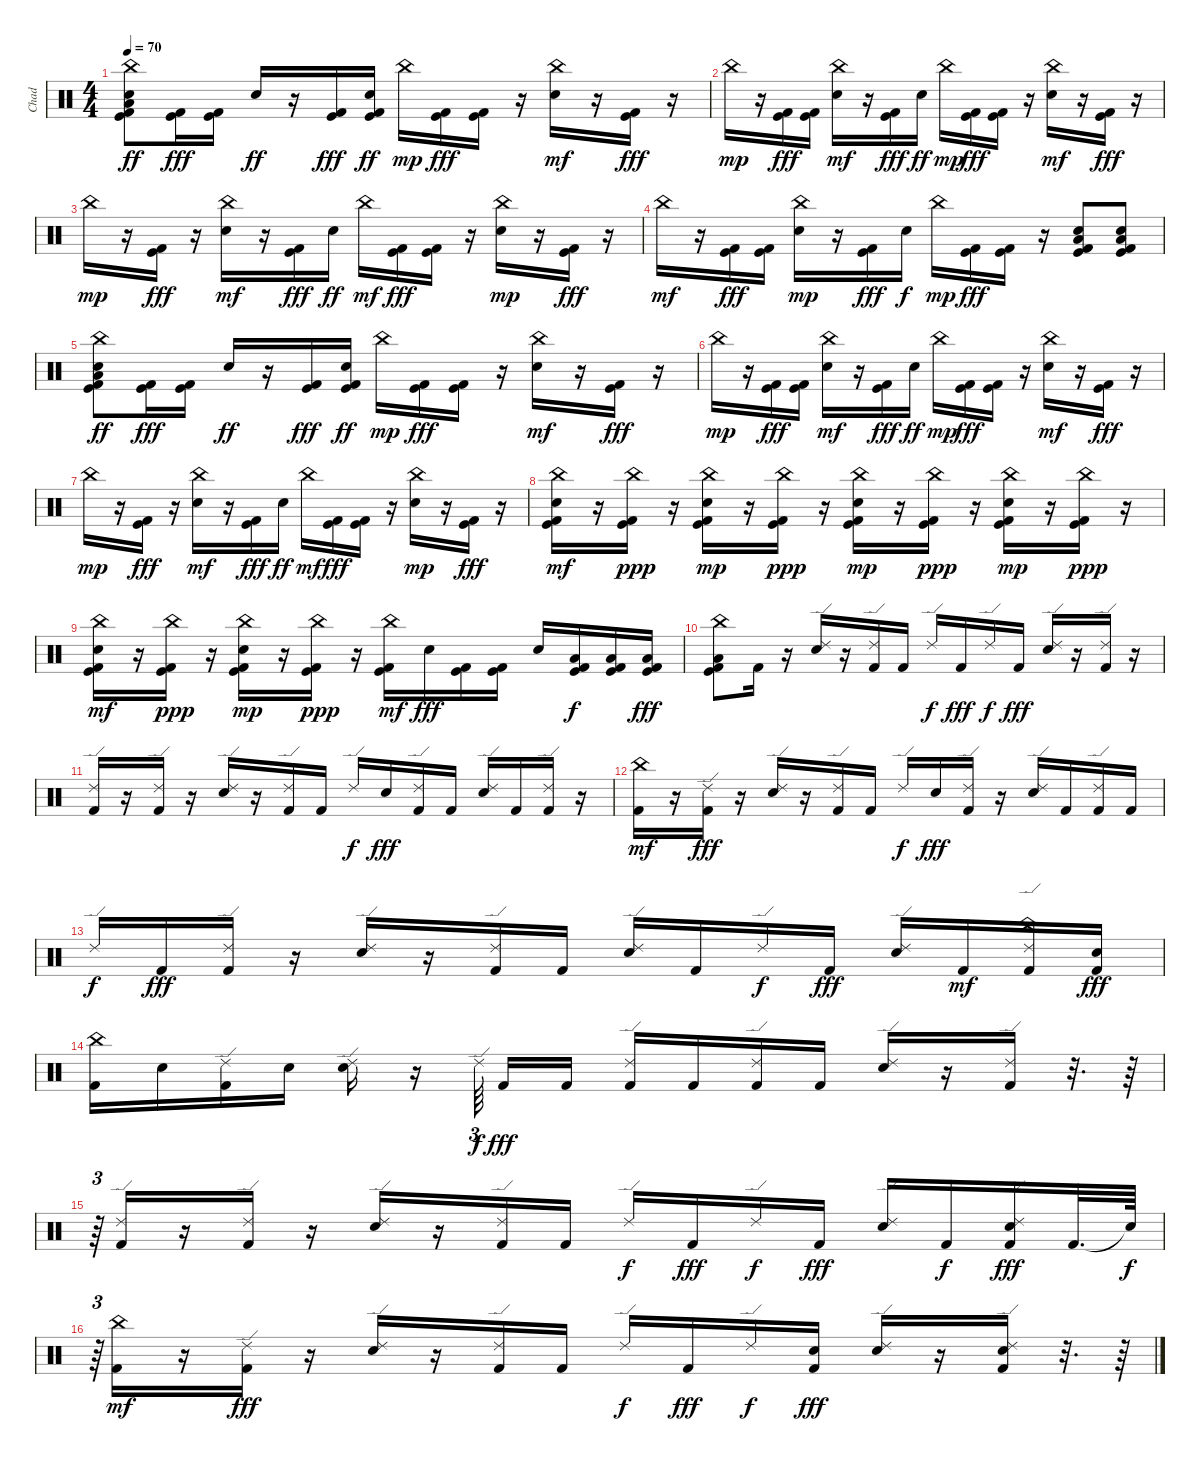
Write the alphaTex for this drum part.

\track ("Chad" "Chad") {instrument percussion}
\staff {score}
\articulation defaults
\ts (4 4)
\tempo 70
\clef neutral
\ks c
("Kick (hit)" "Kick (hit) 2" "Snare (hit) 2" "Low Floor Tom (hit)" "China (hit)").8{dy ff} ("Kick (hit)" "Kick (hit) 2").16{dy fff} ("Kick (hit)" "Kick (hit) 2").16 "Snare (hit) 2".16{dy ff} r.16 ("Kick (hit)" "Kick (hit) 2").16{dy fff} ("Kick (hit)" "Kick (hit) 2" "Snare (hit) 2").16{dy ff} "China (hit)".16{dy mp} ("Kick (hit)" "Kick (hit) 2").16{dy fff} ("Kick (hit)" "Kick (hit) 2").16 r.16 ("Snare (hit) 2" "China (hit)").16{dy mf} r.16 ("Kick (hit)" "Kick (hit) 2").16{dy fff} r.16 |
"China (hit)".16{dy mp} r.16 ("Kick (hit)" "Kick (hit) 2").16{dy fff} ("Kick (hit)" "Kick (hit) 2").16 ("Snare (hit) 2" "China (hit)").16{dy mf} r.16 ("Kick (hit)" "Kick (hit) 2").16{dy fff} "Snare (hit) 2".16{dy ff} "China (hit)".16{dy mp} ("Kick (hit)" "Kick (hit) 2").16{dy fff} ("Kick (hit)" "Kick (hit) 2").16 r.16 ("Snare (hit) 2" "China (hit)").16{dy mf} r.16 ("Kick (hit)" "Kick (hit) 2").16{dy fff} r.16 |
"China (hit)".16{dy mp} r.16 ("Kick (hit)" "Kick (hit) 2").16{dy fff} r.16 ("Snare (hit) 2" "China (hit)").16{dy mf} r.16 ("Kick (hit)" "Kick (hit) 2").16{dy fff} "Snare (hit) 2".16{dy ff} "China (hit)".16{dy mf} ("Kick (hit)" "Kick (hit) 2").16{dy fff} ("Kick (hit)" "Kick (hit) 2").16 r.16 ("Snare (hit) 2" "China (hit)").16{dy mp} r.16 ("Kick (hit)" "Kick (hit) 2").16{dy fff} r.16 |
"China (hit)".16{dy mf} r.16 ("Kick (hit)" "Kick (hit) 2").16{dy fff} ("Kick (hit)" "Kick (hit) 2").16 ("Snare (hit) 2" "China (hit)").16{dy mp} r.16 ("Kick (hit)" "Kick (hit) 2").16{dy fff} "Snare (hit) 2".16{dy f} "China (hit)".16{dy mp} ("Kick (hit)" "Kick (hit) 2").16{dy fff} ("Kick (hit)" "Kick (hit) 2").16 r.16 ("Snare (hit) 2" "Kick (hit)" "Kick (hit) 2" "Low Floor Tom (hit)").8 ("Snare (hit) 2" "Kick (hit)" "Kick (hit) 2" "Low Floor Tom (hit)").8 |
("Kick (hit)" "Kick (hit) 2" "Snare (hit) 2" "Low Floor Tom (hit)" "China (hit)").8{dy ff} ("Kick (hit)" "Kick (hit) 2").16{dy fff} ("Kick (hit)" "Kick (hit) 2").16 "Snare (hit) 2".16{dy ff} r.16 ("Kick (hit)" "Kick (hit) 2").16{dy fff} ("Kick (hit)" "Kick (hit) 2" "Snare (hit) 2").16{dy ff} "China (hit)".16{dy mp} ("Kick (hit)" "Kick (hit) 2").16{dy fff} ("Kick (hit)" "Kick (hit) 2").16 r.16 ("Snare (hit) 2" "China (hit)").16{dy mf} r.16 ("Kick (hit)" "Kick (hit) 2").16{dy fff} r.16 |
"China (hit)".16{dy mp} r.16 ("Kick (hit)" "Kick (hit) 2").16{dy fff} ("Kick (hit)" "Kick (hit) 2").16 ("Snare (hit) 2" "China (hit)").16{dy mf} r.16 ("Kick (hit)" "Kick (hit) 2").16{dy fff} "Snare (hit) 2".16{dy ff} "China (hit)".16{dy mp} ("Kick (hit)" "Kick (hit) 2").16{dy fff} ("Kick (hit)" "Kick (hit) 2").16 r.16 ("Snare (hit) 2" "China (hit)").16{dy mf} r.16 ("Kick (hit)" "Kick (hit) 2").16{dy fff} r.16 |
"China (hit)".16{dy mp} r.16 ("Kick (hit)" "Kick (hit) 2").16{dy fff} r.16 ("Snare (hit) 2" "China (hit)").16{dy mf} r.16 ("Kick (hit)" "Kick (hit) 2").16{dy fff} "Snare (hit) 2".16{dy ff} "China (hit)".16{dy mf} ("Kick (hit)" "Kick (hit) 2").16{dy fff} ("Kick (hit)" "Kick (hit) 2").16 r.16 ("Snare (hit) 2" "China (hit)").16{dy mp} r.16 ("Kick (hit)" "Kick (hit) 2").16{dy fff} r.16 |
("Kick (hit)" "Kick (hit) 2" "Snare (hit) 2" "China (hit)").16{dy mf} r.16 ("Kick (hit)" "Kick (hit) 2" "China (hit)").16{dy ppp} r.16 ("Kick (hit)" "Kick (hit) 2" "Snare (hit) 2" "China (hit)").16{dy mp} r.16 ("Kick (hit)" "Kick (hit) 2" "China (hit)").16{dy ppp} r.16 ("Kick (hit)" "Kick (hit) 2" "Snare (hit) 2" "China (hit)").16{dy mp} r.16 ("Kick (hit)" "Kick (hit) 2" "China (hit)").16{dy ppp} r.16 ("Kick (hit)" "Kick (hit) 2" "Snare (hit) 2" "China (hit)").16{dy mp} r.16 ("Kick (hit)" "Kick (hit) 2" "China (hit)").16{dy ppp} r.16 |
("Kick (hit)" "Kick (hit) 2" "Snare (hit) 2" "China (hit)").16{dy mf} r.16 ("Kick (hit)" "Kick (hit) 2" "China (hit)").16{dy ppp} r.16 ("Kick (hit)" "Kick (hit) 2" "Snare (hit) 2" "China (hit)").16{dy mp} r.16 ("Kick (hit)" "Kick (hit) 2" "China (hit)").16{dy ppp} r.16 ("Kick (hit)" "Kick (hit) 2" "China (hit)").16{dy mf} "Hand Clap (hit)".16{dy fff} ("Kick (hit)" "Kick (hit) 2").16 ("Kick (hit)" "Kick (hit) 2").16 "Snare (hit) 2".16 ("Kick (hit)" "Kick (hit) 2" "Low Floor Tom (hit)").16{dy f} ("Kick (hit)" "Kick (hit) 2" "Low Floor Tom (hit)").16 ("Kick (hit)" "Kick (hit) 2" "Low Floor Tom (hit)").16{dy fff} |
("Kick (hit)" "Kick (hit) 2" "Low Floor Tom (hit)" "China (hit)").8 "Kick (hit) 2".16 r.16 ("Snare (hit) 2" "Ride (edge) 2").16 r.16 ("Kick (hit) 2" "Ride (edge) 2").16 "Kick (hit) 2".16 "Ride (edge) 2".16{dy f} "Kick (hit) 2".16{dy fff} "Ride (edge) 2".16{dy f} "Kick (hit) 2".16{dy fff} ("Snare (hit) 2" "Ride (edge) 2").16 r.16 ("Kick (hit) 2" "Ride (edge) 2").16 r.16 |
("Kick (hit) 2" "Ride (edge) 2").16 r.16 ("Kick (hit) 2" "Ride (edge) 2").16 r.16 ("Snare (hit) 2" "Ride (edge) 2").16 r.16 ("Kick (hit) 2" "Ride (edge) 2").16 "Kick (hit) 2".16 "Ride (edge) 2".16{dy f} "Snare (hit) 2".16{dy fff} ("Kick (hit) 2" "Ride (edge) 2").16 "Kick (hit) 2".16 ("Snare (hit) 2" "Ride (edge) 2").16 "Kick (hit) 2".16 ("Kick (hit) 2" "Ride (edge) 2").16 r.16 |
("Kick (hit) 2" "China (hit)").16{dy mf} r.16 ("Kick (hit) 2" "Ride (edge) 2").16{dy fff} r.16 ("Snare (hit) 2" "Ride (edge) 2").16 r.16 ("Kick (hit) 2" "Ride (edge) 2").16 "Kick (hit) 2".16 "Ride (edge) 2".16{dy f} "Snare (hit) 2".16{dy fff} ("Kick (hit) 2" "Ride (edge) 2").16 r.16 ("Snare (hit) 2" "Ride (edge) 2").16 "Kick (hit) 2".16 ("Kick (hit) 2" "Ride (edge) 2").16 "Kick (hit) 2".16 |
"Ride (edge) 2".16{dy f} "Kick (hit) 2".16{dy fff} ("Kick (hit) 2" "Ride (edge) 2").16 r.16 ("Snare (hit) 2" "Ride (edge) 2").16 r.16 ("Kick (hit) 2" "Ride (edge) 2").16 "Kick (hit) 2".16 ("Snare (hit) 2" "Ride (edge) 2").16 "Kick (hit) 2".16 "Ride (edge) 2".16{dy f} "Kick (hit) 2".16{dy fff} ("Snare (hit) 2" "Ride (edge) 2").16 "Kick (hit) 2".16{dy mf} ("Kick (hit) 2" "China (hit)" "Ride (edge) 2").16 ("Kick (hit) 2" "Snare (hit) 2").16{dy fff} |
("Kick (hit) 2" "China (hit)").16 "Snare (hit) 2".16 ("Kick (hit) 2" "Ride (edge) 2").16 "Electric Snare (hit)".16 ("Snare (hit) 2" "Ride (edge) 2").16 r.16 "Ride (edge) 2".64{tu (3 2) dy f beam splitsecondary} "Kick (hit) 2".16{dy fff} "Kick (hit) 2".16 ("Kick (hit) 2" "Ride (edge) 2").16 "Kick (hit) 2".16 ("Kick (hit) 2" "Ride (edge) 2").16 "Kick (hit) 2".16 ("Snare (hit) 2" "Ride (edge) 2").16 r.16 ("Kick (hit) 2" "Ride (edge) 2").16 r.32{d} r.64 |
r.64{tu (3 2)} ("Kick (hit) 2" "Ride (edge) 2").16 r.16 ("Kick (hit) 2" "Ride (edge) 2").16 r.16 ("Snare (hit) 2" "Ride (edge) 2").16 r.16 ("Kick (hit) 2" "Ride (edge) 2").16 "Kick (hit) 2".16 "Ride (edge) 2".16{dy f} "Kick (hit) 2".16{dy fff} "Ride (edge) 2".16{dy f} "Kick (hit) 2".16{dy fff} ("Snare (hit) 2" "Ride (edge) 2").16 "Kick (hit) 2".16{dy f} ("Kick (hit) 2" "Snare (hit) 2" "Ride (edge) 2").16{dy fff} "Kick (hit) 2".32{d} "Snare (hit)"{t}.64{dy f} |
r.64{tu (3 2)} ("Kick (hit) 2" "China (hit)").16{dy mf} r.16 ("Kick (hit) 2" "Ride (edge) 2").16{dy fff} r.16 ("Snare (hit) 2" "Ride (edge) 2").16 r.16 ("Kick (hit) 2" "Ride (edge) 2").16 "Kick (hit) 2".16 "Ride (edge) 2".16{dy f} "Kick (hit) 2".16{dy fff} "Ride (edge) 2".16{dy f} ("Kick (hit) 2" "Electric Snare (hit)").16{dy fff} ("Snare (hit) 2" "Ride (edge) 2").16 r.16 ("Kick (hit) 2" "Snare (hit) 2" "Ride (edge) 2").16 r.32{d} r.64
